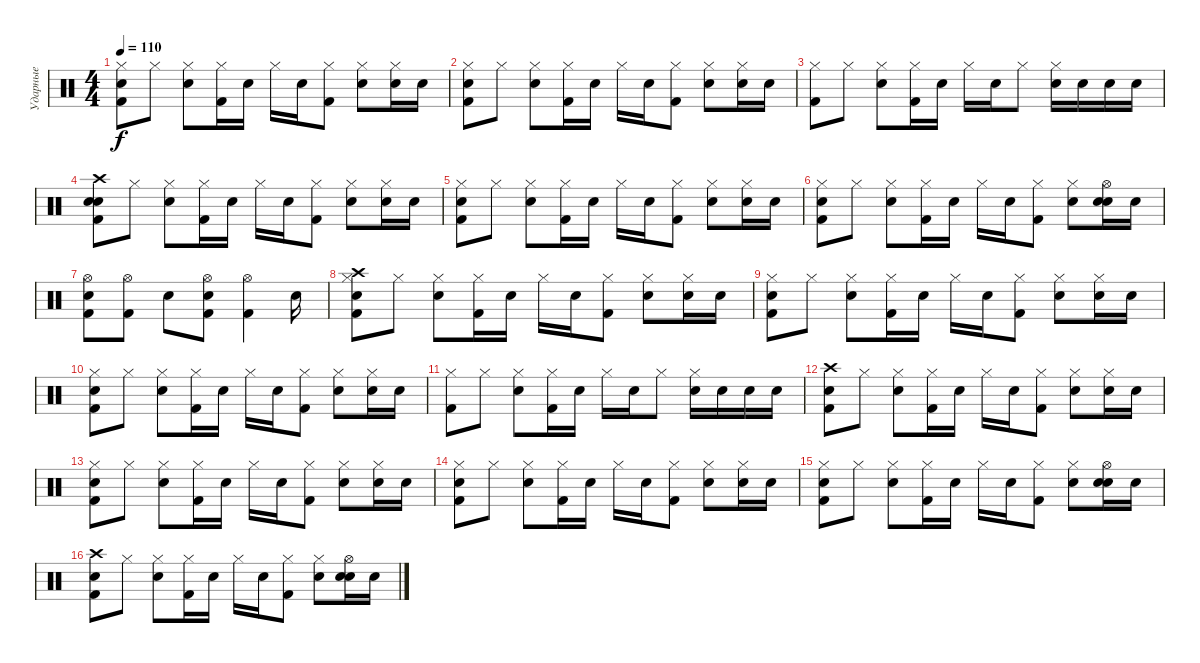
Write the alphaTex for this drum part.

\track ("Ударные" "Ударные") {instrument percussion}
\staff {score}
\articulation defaults
\ts (4 4)
\tempo 110
\clef neutral
\ks c
("Hi-Hat (closed)" "Snare (hit)" "Kick (hit) 2").8{dy f} "Hi-Hat (closed)".8 ("Hi-Hat (closed)" "Electric Snare (hit)").8 ("Hi-Hat (closed)" "Kick (hit) 2").16 "Electric Snare (hit)".16 "Hi-Hat (closed)".16 "Electric Snare (hit)".16 ("Hi-Hat (closed)" "Kick (hit) 2").8 ("Hi-Hat (closed)" "Electric Snare (hit)").8 ("Hi-Hat (closed)" "Snare (hit)").16 "Snare (hit)".16 |
("Hi-Hat (closed)" "Snare (hit)" "Kick (hit) 2").8 "Hi-Hat (closed)".8 ("Hi-Hat (closed)" "Electric Snare (hit)").8 ("Hi-Hat (closed)" "Kick (hit) 2").16 "Electric Snare (hit)".16 "Hi-Hat (closed)".16 "Electric Snare (hit)".16 ("Hi-Hat (closed)" "Kick (hit) 2").8 ("Hi-Hat (closed)" "Electric Snare (hit)").8 ("Hi-Hat (closed)" "Snare (hit)").16 "Snare (hit)".16 |
("Hi-Hat (closed)" "Kick (hit) 2").8 "Hi-Hat (closed)".8 ("Hi-Hat (closed)" "Electric Snare (hit)").8 ("Hi-Hat (closed)" "Kick (hit) 2").16 "Electric Snare (hit)".16 "Hi-Hat (closed)".16 "Electric Snare (hit)".16 "Hi-Hat (closed)".8 ("Hi-Hat (closed)" "Electric Snare (hit)").16 "Electric Snare (hit)".16 "Electric Snare (hit)".16 "Electric Snare (hit)".16 |
("Snare (hit)" "Snare (hit)" "Crash high (hit)" "Kick (hit) 2").8 "Hi-Hat (closed)".8 ("Hi-Hat (closed)" "Electric Snare (hit)").8 ("Hi-Hat (closed)" "Kick (hit) 2").16 "Electric Snare (hit)".16 "Hi-Hat (closed)".16 "Electric Snare (hit)".16 ("Hi-Hat (closed)" "Kick (hit) 2").8 ("Hi-Hat (closed)" "Electric Snare (hit)").8 ("Hi-Hat (closed)" "Snare (hit)").16 "Snare (hit)".16 |
("Hi-Hat (closed)" "Snare (hit)" "Kick (hit) 2").8 "Hi-Hat (closed)".8 ("Hi-Hat (closed)" "Electric Snare (hit)").8 ("Hi-Hat (closed)" "Kick (hit) 2").16 "Electric Snare (hit)".16 "Hi-Hat (closed)".16 "Electric Snare (hit)".16 ("Hi-Hat (closed)" "Kick (hit) 2").8 ("Hi-Hat (closed)" "Electric Snare (hit)").8 ("Hi-Hat (closed)" "Snare (hit)").16 "Snare (hit)".16 |
("Hi-Hat (closed)" "Snare (hit)" "Kick (hit) 2").8 "Hi-Hat (closed)".8 ("Hi-Hat (closed)" "Electric Snare (hit)").8 ("Hi-Hat (closed)" "Kick (hit) 2").16 "Electric Snare (hit)".16 "Hi-Hat (closed)".16 "Electric Snare (hit)".16 ("Hi-Hat (closed)" "Kick (hit) 2").8 ("Hi-Hat (closed)" "Electric Snare (hit)").8 ("Snare (hit)" "Hi-Hat (open)" "Snare (hit)").16 "Snare (hit)".16 |
("Hi-Hat (open)" "Kick (hit) 2" "Snare (hit)").8 ("Hi-Hat (open)" "Kick (hit) 2").8 "Electric Snare (hit)".8 ("Hi-Hat (open)" "Kick (hit) 2" "Snare (hit)").8 ("Hi-Hat (open)" "Kick (hit) 2").4 "Electric Snare (hit)".16 |
("Hi-Hat (closed)" "Snare (hit)" "Crash high (hit)" "Kick (hit) 2").8 "Hi-Hat (closed)".8 ("Hi-Hat (closed)" "Electric Snare (hit)").8 ("Hi-Hat (closed)" "Kick (hit) 2").16 "Electric Snare (hit)".16 "Hi-Hat (closed)".16 "Electric Snare (hit)".16 ("Hi-Hat (closed)" "Kick (hit) 2").8 ("Hi-Hat (closed)" "Electric Snare (hit)").8 ("Hi-Hat (closed)" "Snare (hit)").16 "Snare (hit)".16 |
("Hi-Hat (closed)" "Snare (hit)" "Kick (hit) 2").8 "Hi-Hat (closed)".8 ("Hi-Hat (closed)" "Electric Snare (hit)").8 ("Hi-Hat (closed)" "Kick (hit) 2").16 "Electric Snare (hit)".16 "Hi-Hat (closed)".16 "Electric Snare (hit)".16 ("Hi-Hat (closed)" "Kick (hit) 2").8 ("Hi-Hat (closed)" "Electric Snare (hit)").8 ("Hi-Hat (closed)" "Snare (hit)").16 "Snare (hit)".16 |
("Hi-Hat (closed)" "Snare (hit)" "Kick (hit) 2").8 "Hi-Hat (closed)".8 ("Hi-Hat (closed)" "Electric Snare (hit)").8 ("Hi-Hat (closed)" "Kick (hit) 2").16 "Electric Snare (hit)".16 "Hi-Hat (closed)".16 "Electric Snare (hit)".16 ("Hi-Hat (closed)" "Kick (hit) 2").8 ("Hi-Hat (closed)" "Electric Snare (hit)").8 ("Hi-Hat (closed)" "Snare (hit)").16 "Snare (hit)".16 |
("Hi-Hat (closed)" "Kick (hit) 2").8 "Hi-Hat (closed)".8 ("Hi-Hat (closed)" "Electric Snare (hit)").8 ("Hi-Hat (closed)" "Kick (hit) 2").16 "Electric Snare (hit)".16 "Hi-Hat (closed)".16 "Electric Snare (hit)".16 "Hi-Hat (closed)".8 ("Hi-Hat (closed)" "Electric Snare (hit)").16 "Electric Snare (hit)".16 "Electric Snare (hit)".16 "Electric Snare (hit)".16 |
("Crash high (hit)" "Snare (hit)" "Kick (hit) 2").8 "Hi-Hat (closed)".8 ("Hi-Hat (closed)" "Electric Snare (hit)").8 ("Hi-Hat (closed)" "Kick (hit) 2").16 "Electric Snare (hit)".16 "Hi-Hat (closed)".16 "Electric Snare (hit)".16 ("Hi-Hat (closed)" "Kick (hit) 2").8 ("Hi-Hat (closed)" "Electric Snare (hit)").8 ("Hi-Hat (closed)" "Snare (hit)").16 "Snare (hit)".16 |
("Hi-Hat (closed)" "Snare (hit)" "Kick (hit) 2").8 "Hi-Hat (closed)".8 ("Hi-Hat (closed)" "Electric Snare (hit)").8 ("Hi-Hat (closed)" "Kick (hit) 2").16 "Electric Snare (hit)".16 "Hi-Hat (closed)".16 "Electric Snare (hit)".16 ("Hi-Hat (closed)" "Kick (hit) 2").8 ("Hi-Hat (closed)" "Electric Snare (hit)").8 ("Hi-Hat (closed)" "Snare (hit)").16 "Snare (hit)".16 |
("Hi-Hat (closed)" "Snare (hit)" "Kick (hit) 2").8 "Hi-Hat (closed)".8 ("Hi-Hat (closed)" "Electric Snare (hit)").8 ("Hi-Hat (closed)" "Kick (hit) 2").16 "Electric Snare (hit)".16 "Hi-Hat (closed)".16 "Electric Snare (hit)".16 ("Hi-Hat (closed)" "Kick (hit) 2").8 ("Hi-Hat (closed)" "Electric Snare (hit)").8 ("Hi-Hat (closed)" "Snare (hit)").16 "Snare (hit)".16 |
("Hi-Hat (closed)" "Snare (hit)" "Kick (hit) 2").8 "Hi-Hat (closed)".8 ("Hi-Hat (closed)" "Electric Snare (hit)").8 ("Hi-Hat (closed)" "Kick (hit) 2").16 "Electric Snare (hit)".16 "Hi-Hat (closed)".16 "Electric Snare (hit)".16 ("Hi-Hat (closed)" "Kick (hit) 2").8 ("Hi-Hat (closed)" "Electric Snare (hit)").8 ("Snare (hit)" "Hi-Hat (open)" "Snare (hit)").16 "Snare (hit)".16 |
("Crash high (hit)" "Snare (hit)" "Kick (hit) 2").8 "Hi-Hat (closed)".8 ("Hi-Hat (closed)" "Electric Snare (hit)").8 ("Hi-Hat (closed)" "Kick (hit) 2").16 "Electric Snare (hit)".16 "Hi-Hat (closed)".16 "Electric Snare (hit)".16 ("Hi-Hat (closed)" "Kick (hit) 2").8 ("Hi-Hat (closed)" "Electric Snare (hit)").8 ("Hi-Hat (open)" "Snare (hit)" "Snare (hit)").16 "Snare (hit)".16
